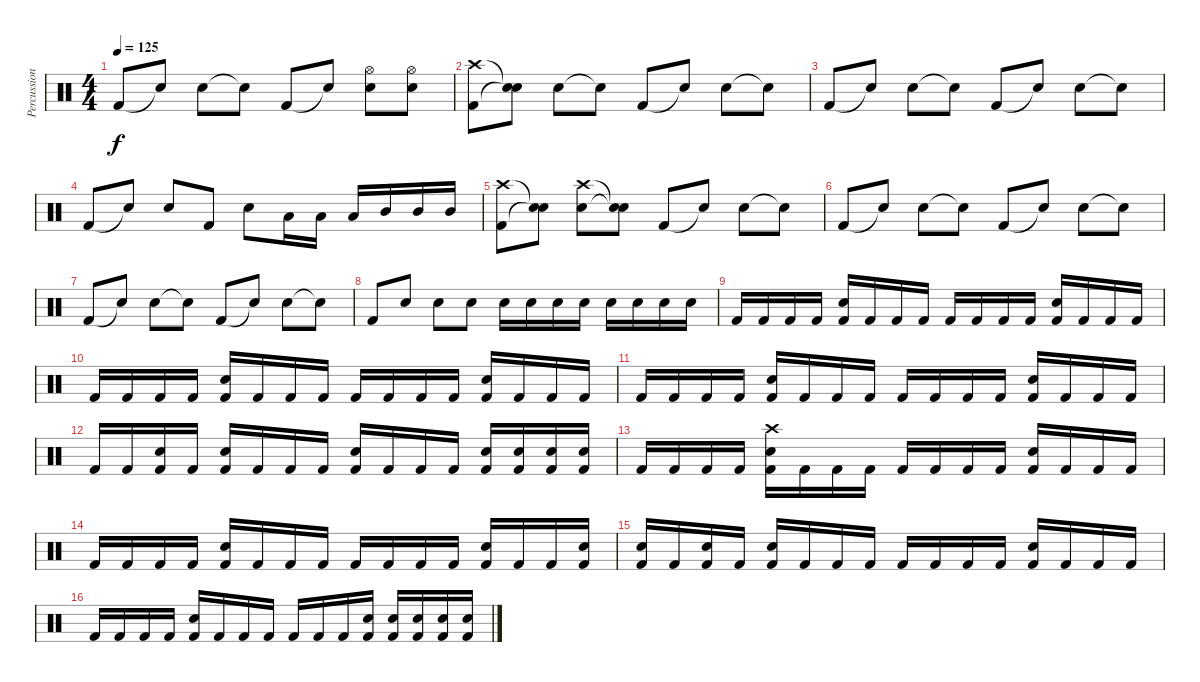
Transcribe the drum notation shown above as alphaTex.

\track ("Percussion" "Percussion") {instrument percussion}
\staff {score}
\articulation defaults
\ts (4 4)
\tempo 125
\clef neutral
\ks c "Kick (hit) 2".8{dy f} "Snare (hit)"{t}.8 "Snare (hit) 2".8 "Snare (hit)"{t}.8 "Kick (hit) 2".8 "Snare (hit)"{t}.8
("Snare (hit) 2" "Hi-Hat (open)").8 ("Snare (hit) 2" "Hi-Hat (open)").8 |
("Kick (hit) 2" "Crash high (hit)").8 ("Snare (hit)"{t} "Snare (hit)"{t}).8 "Snare (hit) 2".8 "Snare (hit)"{t}.8 "Kick (hit) 2".8 "Snare (hit)"{t}.8 "Snare (hit) 2".8 "Snare (hit)"{t}.8 |
"Kick (hit) 2".8 "Snare (hit)"{t}.8 "Snare (hit) 2".8 "Snare (hit)"{t}.8 "Kick (hit) 2".8 "Snare (hit)"{t}.8 "Snare (hit) 2".8 "Snare (hit)"{t}.8 |
"Kick (hit) 2".8 "Snare (hit)"{t}.8 "Snare (hit) 2".8 "Kick (hit) 2".8 "Snare (hit) 2".8 "Low Tom (hit)".16 "Low Tom (hit)".16 "Low Tom (hit)".16 "Mid Tom (hit)".16 "Mid Tom (hit)".16 "Mid Tom (hit)".16 |
("Kick (hit) 2" "Crash high (hit)").8 ("Snare (hit)"{t} "Snare (hit)"{t}).8 ("Snare (hit) 2" "Crash high (hit)").8 ("Snare (hit)"{t} "Snare (hit)"{t}).8 "Kick (hit) 2".8 "Snare (hit)"{t}.8 "Snare (hit) 2".8 "Snare (hit)"{t}.8 |
"Kick (hit) 2".8 "Snare (hit)"{t}.8 "Snare (hit) 2".8 "Snare (hit)"{t}.8 "Kick (hit) 2".8 "Snare (hit)"{t}.8 "Snare (hit) 2".8 "Snare (hit)"{t}.8 |
"Kick (hit) 2".8 "Snare (hit)"{t}.8 "Snare (hit) 2".8 "Snare (hit)"{t}.8 "Kick (hit) 2".8 "Snare (hit)"{t}.8 "Snare (hit) 2".8 "Snare (hit)"{t}.8 |
"Kick (hit) 2".8 "Snare (hit) 2".8 "Snare (hit) 2".8 "Snare (hit) 2".8 "Snare (hit) 2".16 "Snare (hit) 2".16 "Snare (hit) 2".16 "Snare (hit) 2".16 "Snare (hit) 2".16 "Snare (hit) 2".16 "Snare (hit) 2".16 "Snare (hit) 2".16 |
"Kick (hit) 2".16 "Kick (hit) 2".16 "Kick (hit) 2".16 "Kick (hit) 2".16 ("Kick (hit) 2" "Snare (hit) 2").16 "Kick (hit) 2".16 "Kick (hit) 2".16 "Kick (hit) 2".16 "Kick (hit) 2".16 "Kick (hit) 2".16 "Kick (hit) 2".16 "Kick (hit) 2".16 ("Kick (hit) 2" "Snare (hit) 2").16 "Kick (hit) 2".16 "Kick (hit) 2".16 "Kick (hit) 2".16 |
"Kick (hit) 2".16 "Kick (hit) 2".16 "Kick (hit) 2".16 "Kick (hit) 2".16 ("Kick (hit) 2" "Snare (hit) 2").16 "Kick (hit) 2".16 "Kick (hit) 2".16 "Kick (hit) 2".16 "Kick (hit) 2".16 "Kick (hit) 2".16 "Kick (hit) 2".16 "Kick (hit) 2".16 ("Kick (hit) 2" "Snare (hit) 2").16 "Kick (hit) 2".16 "Kick (hit) 2".16 "Kick (hit) 2".16 |
"Kick (hit) 2".16 "Kick (hit) 2".16 "Kick (hit) 2".16 "Kick (hit) 2".16 ("Kick (hit) 2" "Snare (hit) 2").16 "Kick (hit) 2".16 "Kick (hit) 2".16 "Kick (hit) 2".16 "Kick (hit) 2".16 "Kick (hit) 2".16 "Kick (hit) 2".16 "Kick (hit) 2".16 ("Kick (hit) 2" "Snare (hit) 2").16 "Kick (hit) 2".16 "Kick (hit) 2".16 "Kick (hit) 2".16 |
"Kick (hit) 2".16 "Kick (hit) 2".16 ("Kick (hit) 2" "Snare (hit) 2").16 "Kick (hit) 2".16 ("Kick (hit) 2" "Snare (hit) 2").16 "Kick (hit) 2".16 "Kick (hit) 2".16 "Kick (hit) 2".16 ("Kick (hit) 2" "Snare (hit) 2").16 "Kick (hit) 2".16 "Kick (hit) 2".16 "Kick (hit) 2".16 ("Kick (hit) 2" "Snare (hit) 2").16 ("Kick (hit) 2" "Snare (hit) 2").16 ("Kick (hit) 2" "Snare (hit) 2").16 ("Kick (hit) 2" "Snare (hit) 2").16 |
"Kick (hit) 2".16 "Kick (hit) 2".16 "Kick (hit) 2".16 "Kick (hit) 2".16 ("Kick (hit) 2" "Snare (hit) 2" "Crash high (hit)").16 "Kick (hit) 2".16 "Kick (hit) 2".16 "Kick (hit) 2".16 "Kick (hit) 2".16 "Kick (hit) 2".16 "Kick (hit) 2".16 "Kick (hit) 2".16 ("Kick (hit) 2" "Snare (hit) 2").16 "Kick (hit) 2".16 "Kick (hit) 2".16 "Kick (hit) 2".16 |
"Kick (hit) 2".16 "Kick (hit) 2".16 "Kick (hit) 2".16 "Kick (hit) 2".16 ("Kick (hit) 2" "Snare (hit) 2").16 "Kick (hit) 2".16 "Kick (hit) 2".16 "Kick (hit) 2".16 "Kick (hit) 2".16 "Kick (hit) 2".16 "Kick (hit) 2".16 "Kick (hit) 2".16 ("Kick (hit) 2" "Snare (hit) 2").16 "Kick (hit) 2".16 "Kick (hit) 2".16 ("Kick (hit) 2" "Snare (hit) 2").16 |
("Kick (hit) 2" "Snare (hit) 2").16 "Kick (hit) 2".16 ("Kick (hit) 2" "Snare (hit) 2").16 "Kick (hit) 2".16 ("Kick (hit) 2" "Snare (hit) 2").16 "Kick (hit) 2".16 "Kick (hit) 2".16 "Kick (hit) 2".16 "Kick (hit) 2".16 "Kick (hit) 2".16 "Kick (hit) 2".16 "Kick (hit) 2".16 ("Kick (hit) 2" "Snare (hit) 2").16 "Kick (hit) 2".16 "Kick (hit) 2".16 "Kick (hit) 2".16 |
"Kick (hit) 2".16 "Kick (hit) 2".16 "Kick (hit) 2".16 "Kick (hit) 2".16 ("Kick (hit) 2" "Snare (hit) 2").16 "Kick (hit) 2".16 "Kick (hit) 2".16 "Kick (hit) 2".16 "Kick (hit) 2".16 "Kick (hit) 2".16 "Kick (hit) 2".16 ("Kick (hit) 2" "Snare (hit) 2").16 ("Kick (hit) 2" "Snare (hit) 2").16 ("Kick (hit) 2" "Snare (hit) 2").16 ("Kick (hit) 2" "Snare (hit) 2").16 ("Kick (hit) 2" "Snare (hit) 2").16
